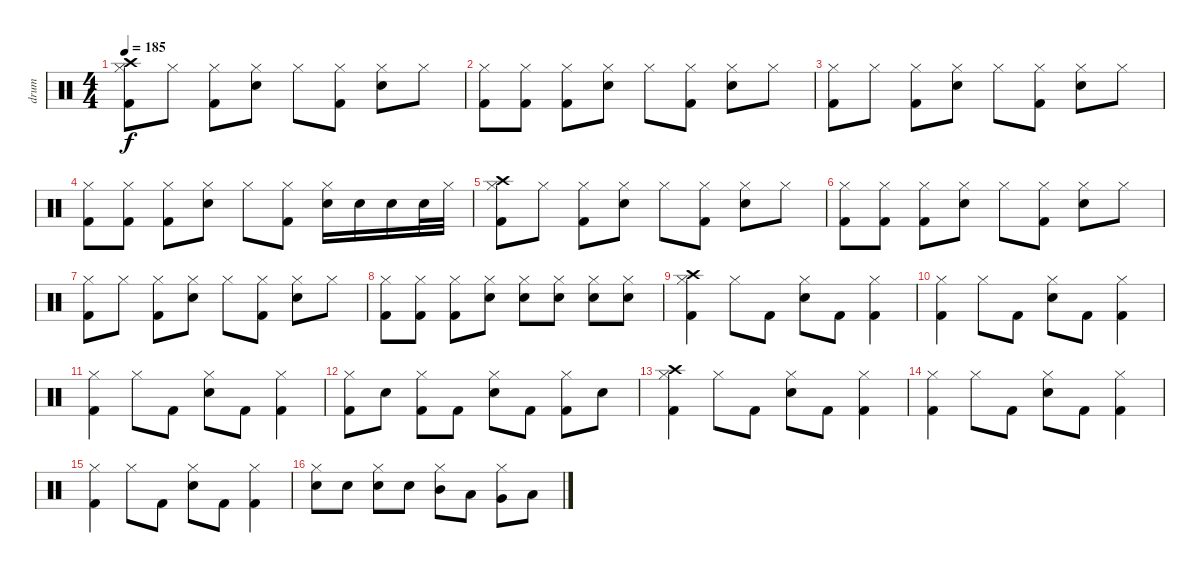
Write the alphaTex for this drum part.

\track ("drum" "drum") {instrument percussion}
\staff {score}
\articulation defaults
\ts (4 4)
\tempo 185
\clef neutral
\ks c
("Hi-Hat (closed)" "Crash high (hit)" "Kick (hit) 2").8{dy f} "Hi-Hat (closed)".8 ("Hi-Hat (closed)" "Kick (hit) 2").8 ("Hi-Hat (closed)" "Electric Snare (hit)").8 "Hi-Hat (closed)".8 ("Hi-Hat (closed)" "Kick (hit) 2").8 ("Hi-Hat (closed)" "Electric Snare (hit)").8 "Hi-Hat (closed)".8 |
("Hi-Hat (closed)" "Kick (hit) 2").8 ("Hi-Hat (closed)" "Kick (hit) 2").8 ("Hi-Hat (closed)" "Kick (hit) 2").8 ("Hi-Hat (closed)" "Electric Snare (hit)").8 "Hi-Hat (closed)".8 ("Hi-Hat (closed)" "Kick (hit) 2").8 ("Hi-Hat (closed)" "Electric Snare (hit)").8 "Hi-Hat (closed)".8 |
("Hi-Hat (closed)" "Kick (hit) 2").8 "Hi-Hat (closed)".8 ("Hi-Hat (closed)" "Kick (hit) 2").8 ("Hi-Hat (closed)" "Electric Snare (hit)").8 "Hi-Hat (closed)".8 ("Hi-Hat (closed)" "Kick (hit) 2").8 ("Hi-Hat (closed)" "Electric Snare (hit)").8 "Hi-Hat (closed)".8 |
("Hi-Hat (closed)" "Kick (hit) 2").8 ("Hi-Hat (closed)" "Kick (hit) 2").8 ("Hi-Hat (closed)" "Kick (hit) 2").8 ("Hi-Hat (closed)" "Electric Snare (hit)").8 "Hi-Hat (closed)".8 ("Hi-Hat (closed)" "Kick (hit) 2").8 ("Hi-Hat (closed)" "Electric Snare (hit)").16 "Electric Snare (hit)".16 "Electric Snare (hit)".16 "Electric Snare (hit)".32 "Hi-Hat (closed)".32 |
("Hi-Hat (closed)" "Crash high (hit)" "Kick (hit) 2").8 "Hi-Hat (closed)".8 ("Hi-Hat (closed)" "Kick (hit) 2").8 ("Hi-Hat (closed)" "Electric Snare (hit)").8 "Hi-Hat (closed)".8 ("Hi-Hat (closed)" "Kick (hit) 2").8 ("Hi-Hat (closed)" "Electric Snare (hit)").8 "Hi-Hat (closed)".8 |
("Hi-Hat (closed)" "Kick (hit) 2").8 ("Hi-Hat (closed)" "Kick (hit) 2").8 ("Hi-Hat (closed)" "Kick (hit) 2").8 ("Hi-Hat (closed)" "Electric Snare (hit)").8 "Hi-Hat (closed)".8 ("Hi-Hat (closed)" "Kick (hit) 2").8 ("Hi-Hat (closed)" "Electric Snare (hit)").8 "Hi-Hat (closed)".8 |
("Hi-Hat (closed)" "Kick (hit) 2").8 "Hi-Hat (closed)".8 ("Hi-Hat (closed)" "Kick (hit) 2").8 ("Hi-Hat (closed)" "Electric Snare (hit)").8 "Hi-Hat (closed)".8 ("Hi-Hat (closed)" "Kick (hit) 2").8 ("Hi-Hat (closed)" "Electric Snare (hit)").8 "Hi-Hat (closed)".8 |
("Hi-Hat (closed)" "Kick (hit) 2").8 ("Hi-Hat (closed)" "Kick (hit) 2").8 ("Hi-Hat (closed)" "Kick (hit) 2").8 ("Hi-Hat (closed)" "Electric Snare (hit)").8 ("Hi-Hat (closed)" "Electric Snare (hit)").8 ("Hi-Hat (closed)" "Electric Snare (hit)").8 ("Hi-Hat (closed)" "Electric Snare (hit)").8 ("Hi-Hat (closed)" "Electric Snare (hit)").8 |
("Hi-Hat (closed)" "Crash high (hit)" "Kick (hit) 2").4 "Hi-Hat (closed)".8 "Kick (hit) 2".8 ("Hi-Hat (closed)" "Electric Snare (hit)").8 "Kick (hit) 2".8 ("Hi-Hat (closed)" "Kick (hit) 2").4 |
("Hi-Hat (closed)" "Kick (hit) 2").4 "Hi-Hat (closed)".8 "Kick (hit) 2".8 ("Hi-Hat (closed)" "Electric Snare (hit)").8 "Kick (hit) 2".8 ("Hi-Hat (closed)" "Kick (hit) 2").4 |
("Hi-Hat (closed)" "Kick (hit) 2").4 "Hi-Hat (closed)".8 "Kick (hit) 2".8 ("Hi-Hat (closed)" "Electric Snare (hit)").8 "Kick (hit) 2".8 ("Hi-Hat (closed)" "Kick (hit) 2").4 |
("Hi-Hat (closed)" "Kick (hit) 2").8 "Electric Snare (hit)".8 ("Hi-Hat (closed)" "Kick (hit) 2").8 "Kick (hit) 2".8 ("Hi-Hat (closed)" "Electric Snare (hit)").8 "Kick (hit) 2".8 ("Hi-Hat (closed)" "Kick (hit) 2").8 "Electric Snare (hit)".8 |
("Hi-Hat (closed)" "Crash high (hit)" "Kick (hit) 2").4 "Hi-Hat (closed)".8 "Kick (hit) 2".8 ("Hi-Hat (closed)" "Electric Snare (hit)").8 "Kick (hit) 2".8 ("Hi-Hat (closed)" "Kick (hit) 2").4 |
("Hi-Hat (closed)" "Kick (hit) 2").4 "Hi-Hat (closed)".8 "Kick (hit) 2".8 ("Hi-Hat (closed)" "Electric Snare (hit)").8 "Kick (hit) 2".8 ("Hi-Hat (closed)" "Kick (hit) 2").4 |
("Hi-Hat (closed)" "Kick (hit) 2").4 "Hi-Hat (closed)".8 "Kick (hit) 2".8 ("Hi-Hat (closed)" "Electric Snare (hit)").8 "Kick (hit) 2".8 ("Hi-Hat (closed)" "Kick (hit) 2").4 |
("Hi-Hat (closed)" "Electric Snare (hit)").8 "Electric Snare (hit)".8 ("Hi-Hat (closed)" "Electric Snare (hit)").8 "Electric Snare (hit)".8 ("Hi-Hat (closed)" "Mid Tom (hit)").8 "Low Tom (hit)".8 ("Hi-Hat (closed)" "Very Low Tom (hit)").8 "Low Floor Tom (hit)".8
